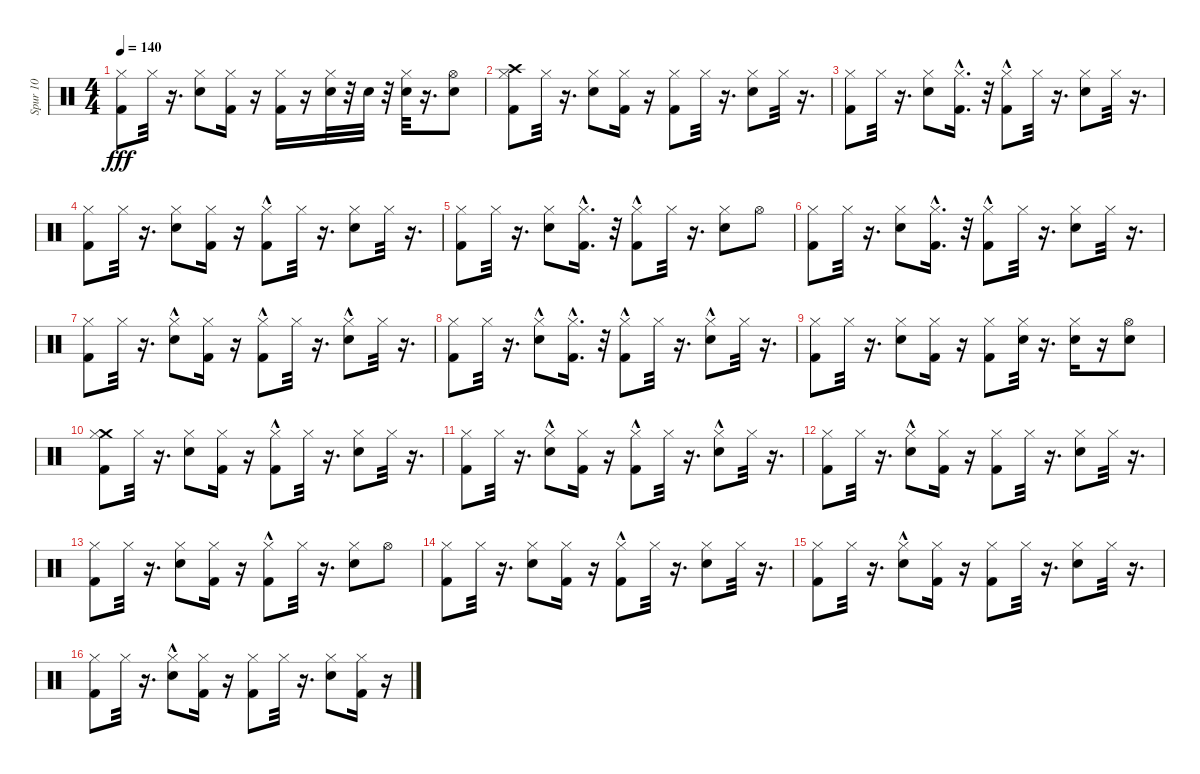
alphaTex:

\track ("Spur 10" "Spur 10") {instrument percussion}
\staff {score}
\articulation defaults
\ts (4 4)
\tempo 140
\clef neutral
\ks c
("Kick (hit) 2" "Hi-Hat (closed)").8{dy fff} "Hi-Hat (closed)".32 r.16{d} ("Snare (hit) 2" "Hi-Hat (closed)").8 ("Kick (hit) 2" "Hi-Hat (closed)").16 r.16 ("Kick (hit) 2" "Hi-Hat (closed)").16 r.16 ("Snare (hit) 2" "Hi-Hat (closed)").32 r.32 "Snare (hit) 2".32 r.32 ("Snare (hit) 2" "Hi-Hat (closed)").32 r.16{d} ("Snare (hit) 2" "Hi-Hat (open)").8 |
("Crash high (hit)" "Kick (hit) 2" "Hi-Hat (closed)").8 "Hi-Hat (closed)".32 r.16{d} ("Snare (hit) 2" "Hi-Hat (closed)").8 ("Kick (hit) 2" "Hi-Hat (closed)").16 r.16 ("Kick (hit) 2" "Hi-Hat (closed)").8 "Hi-Hat (closed)".32 r.16{d} ("Snare (hit) 2" "Hi-Hat (closed)").8 "Hi-Hat (closed)".32 r.16{d} |
("Kick (hit) 2" "Hi-Hat (closed)").8 "Hi-Hat (closed)".32 r.16{d} ("Snare (hit) 2" "Hi-Hat (closed)").8 ("Kick (hit) 2"{hac} "Hi-Hat (closed)").16{d} r.32 ("Kick (hit) 2"{hac} "Hi-Hat (closed)").8 "Hi-Hat (closed)".32 r.16{d} ("Snare (hit) 2" "Hi-Hat (closed)").8 "Hi-Hat (closed)".32 r.16{d} |
("Kick (hit) 2" "Hi-Hat (closed)").8 "Hi-Hat (closed)".32 r.16{d} ("Snare (hit) 2" "Hi-Hat (closed)").8 ("Kick (hit) 2" "Hi-Hat (closed)").16 r.16 ("Kick (hit) 2"{hac} "Hi-Hat (closed)").8 "Hi-Hat (closed)".32 r.16{d} ("Snare (hit) 2" "Hi-Hat (closed)").8 "Hi-Hat (closed)".32 r.16{d} |
("Kick (hit) 2" "Hi-Hat (closed)").8 "Hi-Hat (closed)".32 r.16{d} ("Snare (hit) 2" "Hi-Hat (closed)").8 ("Kick (hit) 2"{hac} "Hi-Hat (closed)").16{d} r.32 ("Kick (hit) 2"{hac} "Hi-Hat (closed)").8 "Hi-Hat (closed)".32 r.16{d} ("Snare (hit) 2" "Hi-Hat (closed)").8 "Hi-Hat (open)".8 |
("Kick (hit) 2" "Hi-Hat (closed)").8 "Hi-Hat (closed)".32 r.16{d} ("Snare (hit) 2" "Hi-Hat (closed)").8 ("Kick (hit) 2"{hac} "Hi-Hat (closed)").16{d} r.32 ("Kick (hit) 2"{hac} "Hi-Hat (closed)").8 "Hi-Hat (closed)".32 r.16{d} ("Snare (hit) 2" "Hi-Hat (closed)").8 "Hi-Hat (closed)".32 r.16{d} |
("Kick (hit) 2" "Hi-Hat (closed)").8 "Hi-Hat (closed)".32 r.16{d} ("Snare (hit) 2"{hac} "Hi-Hat (closed)").8 ("Kick (hit) 2" "Hi-Hat (closed)").16 r.16 ("Kick (hit) 2"{hac} "Hi-Hat (closed)").8 "Hi-Hat (closed)".32 r.16{d} ("Snare (hit) 2"{hac} "Hi-Hat (closed)").8 "Hi-Hat (closed)".32 r.16{d} |
("Kick (hit) 2" "Hi-Hat (closed)").8 "Hi-Hat (closed)".32 r.16{d} ("Snare (hit) 2"{hac} "Hi-Hat (closed)").8 ("Kick (hit) 2"{hac} "Hi-Hat (closed)").16{d} r.32 ("Kick (hit) 2"{hac} "Hi-Hat (closed)").8 "Hi-Hat (closed)".32 r.16{d} ("Snare (hit) 2"{hac} "Hi-Hat (closed)").8 "Hi-Hat (closed)".32 r.16{d} |
("Kick (hit) 2" "Hi-Hat (closed)").8 "Hi-Hat (closed)".32 r.16{d} ("Snare (hit) 2" "Hi-Hat (closed)").8 ("Kick (hit) 2" "Hi-Hat (closed)").16 r.16 ("Kick (hit) 2" "Hi-Hat (closed)").8 ("Snare (hit) 2" "Hi-Hat (closed)").32 r.16{d} ("Snare (hit) 2" "Hi-Hat (closed)").16 r.16 ("Snare (hit) 2" "Hi-Hat (open)").8 |
("Kick (hit) 2" "Crash medium (hit)" "Hi-Hat (closed)").8 "Hi-Hat (closed)".32 r.16{d} ("Snare (hit) 2" "Hi-Hat (closed)").8 ("Kick (hit) 2" "Hi-Hat (closed)").16 r.16 ("Kick (hit) 2"{hac} "Hi-Hat (closed)").8 "Hi-Hat (closed)".32 r.16{d} ("Snare (hit) 2" "Hi-Hat (closed)").8 "Hi-Hat (closed)".32 r.16{d} |
("Kick (hit) 2" "Hi-Hat (closed)").8 "Hi-Hat (closed)".32 r.16{d} ("Snare (hit) 2"{hac} "Hi-Hat (closed)").8 ("Kick (hit) 2" "Hi-Hat (closed)").16 r.16 ("Kick (hit) 2"{hac} "Hi-Hat (closed)").8 "Hi-Hat (closed)".32 r.16{d} ("Snare (hit) 2"{hac} "Hi-Hat (closed)").8 "Hi-Hat (closed)".32 r.16{d} |
("Kick (hit) 2" "Hi-Hat (closed)").8 "Hi-Hat (closed)".32 r.16{d} ("Snare (hit) 2"{hac} "Hi-Hat (closed)").8 ("Kick (hit) 2" "Hi-Hat (closed)").16 r.16 ("Kick (hit) 2" "Hi-Hat (closed)").8 "Hi-Hat (closed)".32 r.16{d} ("Snare (hit) 2" "Hi-Hat (closed)").8 "Hi-Hat (closed)".32 r.16{d} |
("Kick (hit) 2" "Hi-Hat (closed)").8 "Hi-Hat (closed)".32 r.16{d} ("Snare (hit) 2" "Hi-Hat (closed)").8 ("Kick (hit) 2" "Hi-Hat (closed)").16 r.16 ("Kick (hit) 2"{hac} "Hi-Hat (closed)").8 "Hi-Hat (closed)".32 r.16{d} ("Snare (hit) 2" "Hi-Hat (closed)").8 "Hi-Hat (open)".8 |
("Kick (hit) 2" "Hi-Hat (closed)").8 "Hi-Hat (closed)".32 r.16{d} ("Snare (hit) 2" "Hi-Hat (closed)").8 ("Kick (hit) 2" "Hi-Hat (closed)").16 r.16 ("Kick (hit) 2"{hac} "Hi-Hat (closed)").8 "Hi-Hat (closed)".32 r.16{d} ("Snare (hit) 2" "Hi-Hat (closed)").8 "Hi-Hat (closed)".32 r.16{d} |
("Kick (hit) 2" "Hi-Hat (closed)").8 "Hi-Hat (closed)".32 r.16{d} ("Snare (hit) 2"{hac} "Hi-Hat (closed)").8 ("Kick (hit) 2" "Hi-Hat (closed)").16 r.16 ("Kick (hit) 2" "Hi-Hat (closed)").8 "Hi-Hat (closed)".32 r.16{d} ("Snare (hit) 2" "Hi-Hat (closed)").8 "Hi-Hat (closed)".32 r.16{d} |
("Kick (hit) 2" "Hi-Hat (closed)").8 "Hi-Hat (closed)".32 r.16{d} ("Snare (hit) 2"{hac} "Hi-Hat (closed)").8 ("Kick (hit) 2" "Hi-Hat (closed)").16 r.16 ("Kick (hit) 2" "Hi-Hat (closed)").8 "Hi-Hat (closed)".32 r.16{d} ("Snare (hit) 2" "Hi-Hat (closed)").8 ("Kick (hit) 2" "Hi-Hat (closed)").16 r.16
